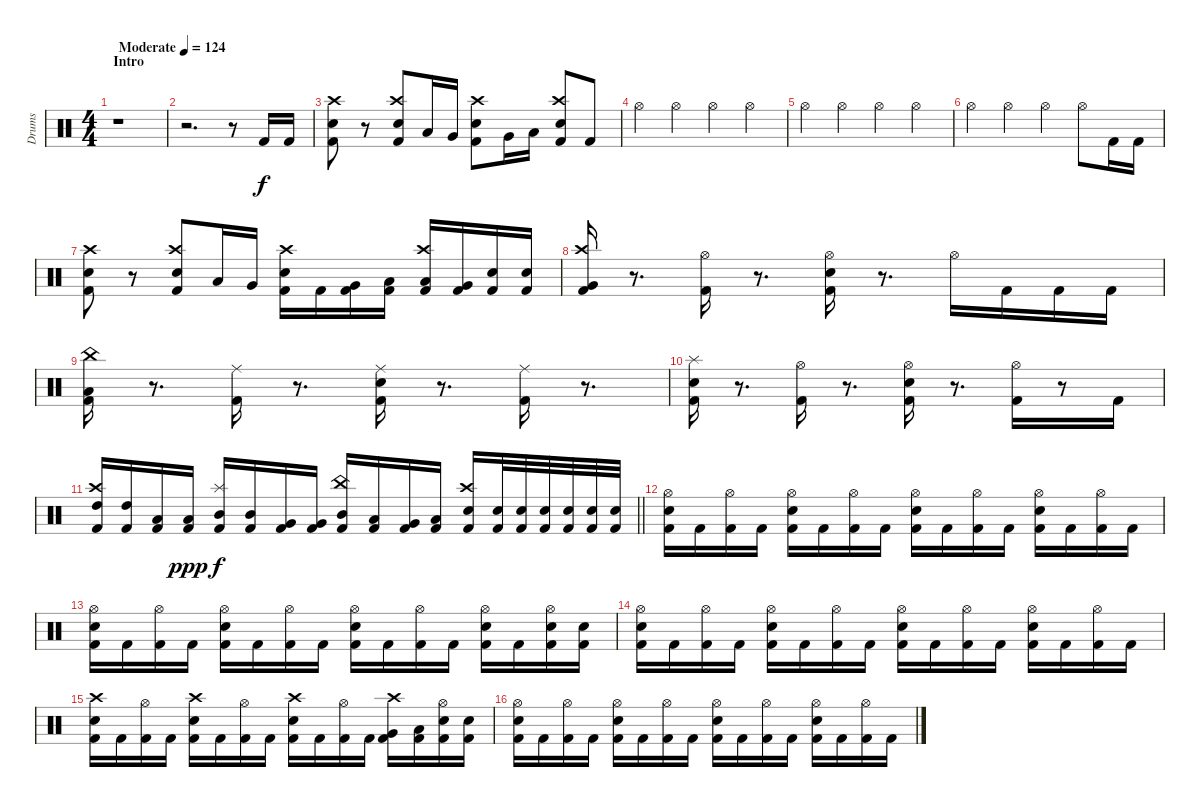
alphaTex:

\track ("Drums" "Drums") {instrument percussion}
\staff {score}
\articulation defaults
\ts (4 4)
\section ("" "Intro")
\tempo (124 "Moderate")
\clef neutral
\ks c
r.1{dy f} |
r.2{d} r.8 "Kick (hit) 2".16 "Kick (hit) 2".16 |
("Electric Snare (hit)" "Crash high (hit)" "Kick (hit) 2").8 r.8 ("Snare (hit) 2" "Kick (hit) 2" "Crash high (hit)").8 "Low Tom (hit)".16 "Very Low Tom (hit)".16 ("Electric Snare (hit)" "Kick (hit) 2" "Crash high (hit)").8 "Very Low Tom (hit)".16 "Low Floor Tom (hit)".16 ("Snare (hit) 2" "Kick (hit) 2" "Crash high (hit)").8 "Kick (hit) 2".8 |
"Hi-Hat (open)".4 "Hi-Hat (open)".4 "Hi-Hat (open)".4 "Hi-Hat (open)".4 |
"Hi-Hat (open)".4 "Hi-Hat (open)".4 "Hi-Hat (open)".4 "Hi-Hat (open)".4 |
"Hi-Hat (open)".4 "Hi-Hat (open)".4 "Hi-Hat (open)".4 "Hi-Hat (open)".8 "Kick (hit) 2".16 "Kick (hit) 2".16 |
("Kick (hit) 2" "Crash high (hit)" "Electric Snare (hit)").8 r.8 ("Crash high (hit)" "Kick (hit) 2" "Snare (hit) 2").8 "Low Tom (hit)".16 "Very Low Tom (hit)".16 ("Crash high (hit)" "Kick (hit) 2" "Electric Snare (hit)").16 "Kick (hit) 2".16 ("Very Low Tom (hit)" "Kick (hit) 2").16 ("Kick (hit) 2" "Low Floor Tom (hit)").16 ("Crash high (hit)" "Kick (hit) 2" "Low Floor Tom (hit)").16 ("Very Low Tom (hit)" "Kick (hit) 2").16 ("Kick (hit) 2" "Snare (hit) 2").16 ("Snare (hit) 2" "Kick (hit) 2").16 |
("Very Low Tom (hit)" "Kick (hit) 2" "Crash high (hit)").16 r.8{d} ("Kick (hit) 2" "Hi-Hat (open)").16 r.8{d} ("Kick (hit) 2" "Electric Snare (hit)" "Hi-Hat (open)").16 r.8{d} "Hi-Hat (open)".16 "Kick (hit) 2".16 "Kick (hit) 2".16 "Kick (hit) 2".16 |
("Low Floor Tom (hit)" "Kick (hit) 2" "China (hit)").16 r.8{d} ("Kick (hit) 2" "Ride (middle)").16 r.8{d} ("Electric Snare (hit)" "Kick (hit) 2" "Ride (middle)").16 r.8{d} ("Kick (hit) 2" "Ride (middle)").16 r.8{d} |
("Splash (hit)" "Snare (hit) 2" "Kick (hit) 2").16 r.8{d} ("Kick (hit) 2" "Hi-Hat (open)").16 r.8{d} ("Kick (hit) 2" "Snare (hit) 2" "Hi-Hat (open)").16 r.8{d} ("Kick (hit) 2" "Hi-Hat (open)").16 r.8 "Kick (hit) 2".16 |
\barLineRight lightlight
("Crash high (hit)" "Kick (hit) 2" "High Tom (hit)").16 ("Kick (hit) 2" "High Tom (hit)").16 ("Kick (hit) 2" "Low Tom (hit)").16 ("Kick (hit) 2" "Low Tom (hit)").16{dy ppp} ("Splash (hit)" "Kick (hit) 2" "Mid Tom (hit)").16{dy f} ("Kick (hit) 2" "Mid Tom (hit)").16 ("Kick (hit) 2" "Very Low Tom (hit)").16 ("Kick (hit) 2" "Very Low Tom (hit)").16 ("China (hit)" "Kick (hit) 2" "Mid Tom (hit)").16 ("Kick (hit) 2" "Low Tom (hit)").16 ("Kick (hit) 2" "Very Low Tom (hit)").16 ("Kick (hit) 2" "Low Floor Tom (hit)").16 ("Crash high (hit)" "Snare (hit) 2" "Kick (hit) 2").16 ("Snare (hit) 2" "Kick (hit) 2").32 ("Kick (hit) 2" "Snare (hit) 2").32 ("Electric Snare (hit)" "Kick (hit) 2").32 ("Kick (hit) 2" "Electric Snare (hit)").32 ("Electric Snare (hit)" "Kick (hit) 2").32 ("Kick (hit) 2" "Electric Snare (hit)").32 |
\section ("" "")
("Kick (hit) 2" "Snare (hit) 2" "Hi-Hat (open)").16 "Kick (hit) 2".16 ("Hi-Hat (open)" "Kick (hit) 2").16 "Kick (hit) 2".16 ("Hi-Hat (open)" "Kick (hit) 2" "Snare (hit) 2").16 "Kick (hit) 2".16 ("Kick (hit) 2" "Hi-Hat (open)").16 "Kick (hit) 2".16 ("Kick (hit) 2" "Snare (hit) 2" "Hi-Hat (open)").16 "Kick (hit) 2".16 ("Hi-Hat (open)" "Kick (hit) 2").16 "Kick (hit) 2".16 ("Hi-Hat (open)" "Snare (hit) 2" "Kick (hit) 2").16 "Kick (hit) 2".16 ("Hi-Hat (open)" "Kick (hit) 2").16 "Kick (hit) 2".16 |
("Kick (hit) 2" "Snare (hit) 2" "Hi-Hat (open)").16 "Kick (hit) 2".16 ("Kick (hit) 2" "Hi-Hat (open)").16 "Kick (hit) 2".16 ("Snare (hit) 2" "Kick (hit) 2" "Hi-Hat (open)").16 "Kick (hit) 2".16 ("Hi-Hat (open)" "Kick (hit) 2").16 "Kick (hit) 2".16 ("Hi-Hat (open)" "Snare (hit) 2" "Kick (hit) 2").16 "Kick (hit) 2".16 ("Hi-Hat (open)" "Kick (hit) 2").16 "Kick (hit) 2".16 ("Hi-Hat (open)" "Snare (hit) 2" "Kick (hit) 2").16 "Kick (hit) 2".16 ("Electric Snare (hit)" "Hi-Hat (open)" "Kick (hit) 2").16 ("Electric Snare (hit)" "Kick (hit) 2").16 |
("Kick (hit) 2" "Snare (hit) 2" "Hi-Hat (open)").16 "Kick (hit) 2".16 ("Kick (hit) 2" "Hi-Hat (open)").16 "Kick (hit) 2".16 ("Hi-Hat (open)" "Kick (hit) 2" "Snare (hit) 2").16 "Kick (hit) 2".16 ("Kick (hit) 2" "Hi-Hat (open)").16 "Kick (hit) 2".16 ("Hi-Hat (open)" "Snare (hit) 2" "Kick (hit) 2").16 "Kick (hit) 2".16 ("Hi-Hat (open)" "Kick (hit) 2").16 "Kick (hit) 2".16 ("Hi-Hat (open)" "Snare (hit) 2" "Kick (hit) 2").16 "Kick (hit) 2".16 ("Hi-Hat (open)" "Kick (hit) 2").16 "Kick (hit) 2".16 |
("Snare (hit) 2" "Kick (hit) 2" "Crash high (hit)").16 "Kick (hit) 2".16 ("Hi-Hat (open)" "Kick (hit) 2").16 "Kick (hit) 2".16 ("Snare (hit) 2" "Crash high (hit)" "Kick (hit) 2").16 "Kick (hit) 2".16 ("Hi-Hat (open)" "Kick (hit) 2").16 "Kick (hit) 2".16 ("Snare (hit) 2" "Crash high (hit)" "Kick (hit) 2").16 "Kick (hit) 2".16 ("Hi-Hat (open)" "Kick (hit) 2").16 "Kick (hit) 2".16 ("Very Low Tom (hit)" "Crash high (hit)" "Kick (hit) 2").16 ("Low Floor Tom (hit)" "Kick (hit) 2").16 ("Hi-Hat (open)" "Snare (hit) 2" "Kick (hit) 2").16 ("Kick (hit) 2" "Electric Snare (hit)").16 |
("Kick (hit) 2" "Snare (hit) 2" "Hi-Hat (open)").16 "Kick (hit) 2".16 ("Hi-Hat (open)" "Kick (hit) 2").16 "Kick (hit) 2".16 ("Hi-Hat (open)" "Kick (hit) 2" "Snare (hit) 2").16 "Kick (hit) 2".16 ("Kick (hit) 2" "Hi-Hat (open)").16 "Kick (hit) 2".16 ("Kick (hit) 2" "Snare (hit) 2" "Hi-Hat (open)").16 "Kick (hit) 2".16 ("Hi-Hat (open)" "Kick (hit) 2").16 "Kick (hit) 2".16 ("Hi-Hat (open)" "Snare (hit) 2" "Kick (hit) 2").16 "Kick (hit) 2".16 ("Hi-Hat (open)" "Kick (hit) 2").16 "Kick (hit) 2".16
